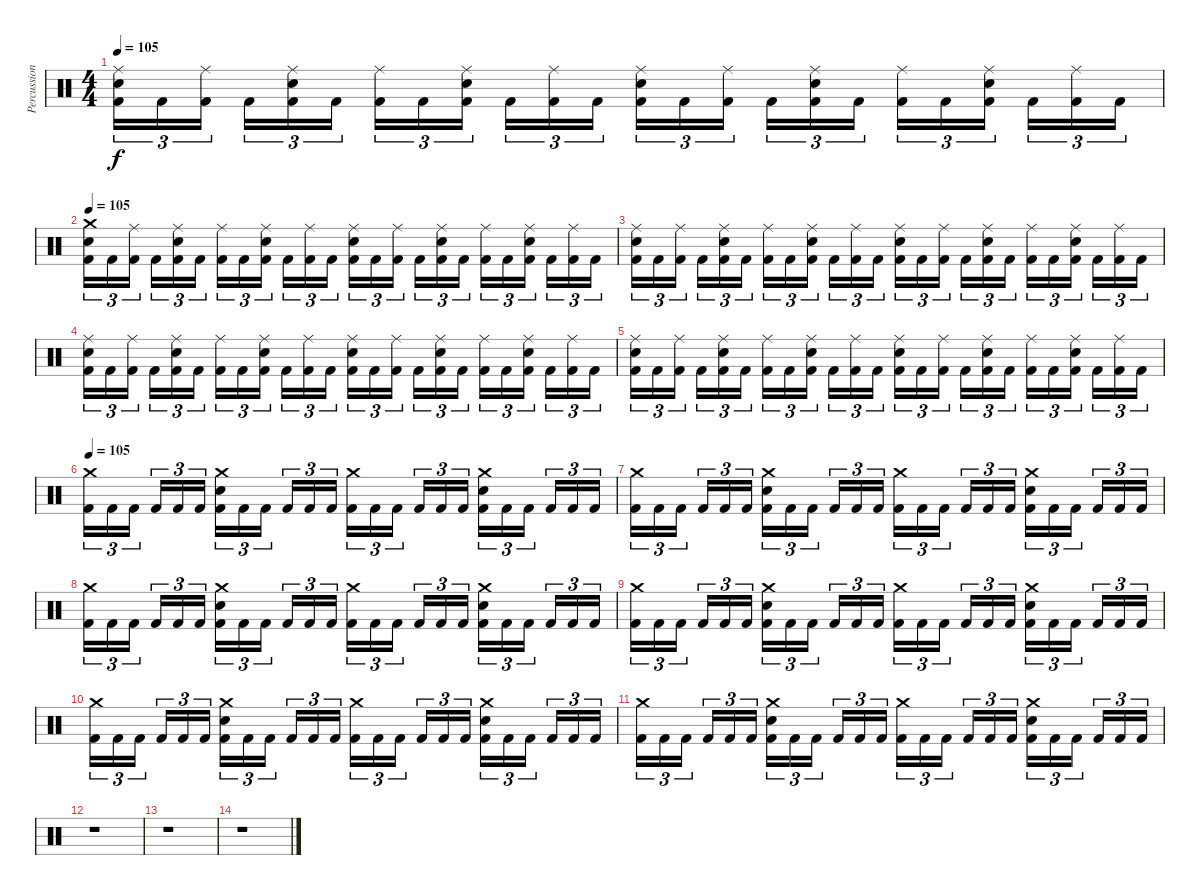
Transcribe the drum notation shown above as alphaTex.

\track ("Percussion" "Percussion") {instrument percussion}
\staff {score}
\articulation defaults
\ts (4 4)
\tempo 105
\clef neutral
\ks c
("Kick (hit) 2" "Electric Snare (hit)" "Ride (middle)").16{tu (3 2) dy f} "Kick (hit) 2".16{tu (3 2)} ("Kick (hit) 2" "Ride (middle)").16{tu (3 2)} "Kick (hit) 2".16{tu (3 2)} ("Kick (hit) 2" "Electric Snare (hit)" "Ride (middle)").16{tu (3 2)} "Kick (hit) 2".16{tu (3 2)} ("Kick (hit) 2" "Ride (middle)").16{tu (3 2)} "Kick (hit) 2".16{tu (3 2)} ("Kick (hit) 2" "Electric Snare (hit)" "Ride (middle)").16{tu (3 2)} "Kick (hit) 2".16{tu (3 2)} ("Kick (hit) 2" "Ride (middle)").16{tu (3 2)} "Kick (hit) 2".16{tu (3 2)} ("Kick (hit) 2" "Electric Snare (hit)" "Ride (middle)").16{tu (3 2)} "Kick (hit) 2".16{tu (3 2)} ("Kick (hit) 2" "Ride (middle)").16{tu (3 2)} "Kick (hit) 2".16{tu (3 2)} ("Kick (hit) 2" "Electric Snare (hit)" "Ride (middle)").16{tu (3 2)} "Kick (hit) 2".16{tu (3 2)} ("Kick (hit) 2" "Ride (middle)").16{tu (3 2)} "Kick (hit) 2".16{tu (3 2)} ("Kick (hit) 2" "Electric Snare (hit)" "Ride (middle)").16{tu (3 2)} "Kick (hit) 2".16{tu (3 2)} ("Kick (hit) 2" "Ride (middle)").16{tu (3 2)} "Kick (hit) 2".16{tu (3 2)} |
\tempo 105
("Kick (hit) 2" "Electric Snare (hit)" "Crash medium (hit)").16{tu (3 2) volume 9} "Kick (hit) 2".16{tu (3 2)} ("Kick (hit) 2" "Ride (middle)").16{tu (3 2)} "Kick (hit) 2".16{tu (3 2)} ("Kick (hit) 2" "Electric Snare (hit)" "Ride (middle)").16{tu (3 2)} "Kick (hit) 2".16{tu (3 2)} ("Kick (hit) 2" "Ride (middle)").16{tu (3 2)} "Kick (hit) 2".16{tu (3 2)} ("Kick (hit) 2" "Electric Snare (hit)" "Ride (middle)").16{tu (3 2)} "Kick (hit) 2".16{tu (3 2)} ("Kick (hit) 2" "Ride (middle)").16{tu (3 2)} "Kick (hit) 2".16{tu (3 2)} ("Kick (hit) 2" "Electric Snare (hit)" "Ride (middle)").16{tu (3 2)} "Kick (hit) 2".16{tu (3 2)} ("Kick (hit) 2" "Ride (middle)").16{tu (3 2)} "Kick (hit) 2".16{tu (3 2)} ("Kick (hit) 2" "Electric Snare (hit)" "Ride (middle)").16{tu (3 2)} "Kick (hit) 2".16{tu (3 2)} ("Kick (hit) 2" "Ride (middle)").16{tu (3 2)} "Kick (hit) 2".16{tu (3 2)} ("Kick (hit) 2" "Electric Snare (hit)" "Ride (middle)").16{tu (3 2)} "Kick (hit) 2".16{tu (3 2)} ("Kick (hit) 2" "Ride (middle)").16{tu (3 2)} "Kick (hit) 2".16{tu (3 2)} |
("Kick (hit) 2" "Electric Snare (hit)" "Ride (middle)").16{tu (3 2)} "Kick (hit) 2".16{tu (3 2)} ("Kick (hit) 2" "Ride (middle)").16{tu (3 2)} "Kick (hit) 2".16{tu (3 2)} ("Kick (hit) 2" "Electric Snare (hit)" "Ride (middle)").16{tu (3 2)} "Kick (hit) 2".16{tu (3 2)} ("Kick (hit) 2" "Ride (middle)").16{tu (3 2)} "Kick (hit) 2".16{tu (3 2)} ("Kick (hit) 2" "Electric Snare (hit)" "Ride (middle)").16{tu (3 2)} "Kick (hit) 2".16{tu (3 2)} ("Kick (hit) 2" "Ride (middle)").16{tu (3 2)} "Kick (hit) 2".16{tu (3 2)} ("Kick (hit) 2" "Electric Snare (hit)" "Ride (middle)").16{tu (3 2)} "Kick (hit) 2".16{tu (3 2)} ("Kick (hit) 2" "Ride (middle)").16{tu (3 2)} "Kick (hit) 2".16{tu (3 2)} ("Kick (hit) 2" "Electric Snare (hit)" "Ride (middle)").16{tu (3 2)} "Kick (hit) 2".16{tu (3 2)} ("Kick (hit) 2" "Ride (middle)").16{tu (3 2)} "Kick (hit) 2".16{tu (3 2)} ("Kick (hit) 2" "Electric Snare (hit)" "Ride (middle)").16{tu (3 2)} "Kick (hit) 2".16{tu (3 2)} ("Kick (hit) 2" "Ride (middle)").16{tu (3 2)} "Kick (hit) 2".16{tu (3 2)} |
("Kick (hit) 2" "Electric Snare (hit)" "Ride (middle)").16{tu (3 2) volume 7} "Kick (hit) 2".16{tu (3 2)} ("Kick (hit) 2" "Ride (middle)").16{tu (3 2)} "Kick (hit) 2".16{tu (3 2)} ("Kick (hit) 2" "Electric Snare (hit)" "Ride (middle)").16{tu (3 2)} "Kick (hit) 2".16{tu (3 2)} ("Kick (hit) 2" "Ride (middle)").16{tu (3 2)} "Kick (hit) 2".16{tu (3 2)} ("Kick (hit) 2" "Electric Snare (hit)" "Ride (middle)").16{tu (3 2)} "Kick (hit) 2".16{tu (3 2)} ("Kick (hit) 2" "Ride (middle)").16{tu (3 2)} "Kick (hit) 2".16{tu (3 2)} ("Kick (hit) 2" "Electric Snare (hit)" "Ride (middle)").16{tu (3 2)} "Kick (hit) 2".16{tu (3 2)} ("Kick (hit) 2" "Ride (middle)").16{tu (3 2)} "Kick (hit) 2".16{tu (3 2)} ("Kick (hit) 2" "Electric Snare (hit)" "Ride (middle)").16{tu (3 2)} "Kick (hit) 2".16{tu (3 2)} ("Kick (hit) 2" "Ride (middle)").16{tu (3 2)} "Kick (hit) 2".16{tu (3 2)} ("Kick (hit) 2" "Electric Snare (hit)" "Ride (middle)").16{tu (3 2)} "Kick (hit) 2".16{tu (3 2)} ("Kick (hit) 2" "Ride (middle)").16{tu (3 2)} "Kick (hit) 2".16{tu (3 2)} |
("Kick (hit) 2" "Electric Snare (hit)" "Ride (middle)").16{tu (3 2)} "Kick (hit) 2".16{tu (3 2)} ("Kick (hit) 2" "Ride (middle)").16{tu (3 2)} "Kick (hit) 2".16{tu (3 2)} ("Kick (hit) 2" "Electric Snare (hit)" "Ride (middle)").16{tu (3 2)} "Kick (hit) 2".16{tu (3 2)} ("Kick (hit) 2" "Ride (middle)").16{tu (3 2)} "Kick (hit) 2".16{tu (3 2)} ("Kick (hit) 2" "Electric Snare (hit)" "Ride (middle)").16{tu (3 2)} "Kick (hit) 2".16{tu (3 2)} ("Kick (hit) 2" "Ride (middle)").16{tu (3 2)} "Kick (hit) 2".16{tu (3 2)} ("Kick (hit) 2" "Electric Snare (hit)" "Ride (middle)").16{tu (3 2)} "Kick (hit) 2".16{tu (3 2)} ("Kick (hit) 2" "Ride (middle)").16{tu (3 2)} "Kick (hit) 2".16{tu (3 2)} ("Kick (hit) 2" "Electric Snare (hit)" "Ride (middle)").16{tu (3 2)} "Kick (hit) 2".16{tu (3 2)} ("Kick (hit) 2" "Ride (middle)").16{tu (3 2)} "Kick (hit) 2".16{tu (3 2)} ("Kick (hit) 2" "Electric Snare (hit)" "Ride (middle)").16{tu (3 2)} "Kick (hit) 2".16{tu (3 2)} ("Kick (hit) 2" "Ride (middle)").16{tu (3 2)} "Kick (hit) 2".16{tu (3 2)} |
\tempo 105
("Kick (hit) 2" "Crash medium (hit)").16{tu (3 2) volume 5} "Kick (hit) 2".16{tu (3 2)} "Kick (hit) 2".16{tu (3 2)} "Kick (hit) 2".16{tu (3 2)} "Kick (hit) 2".16{tu (3 2)} "Kick (hit) 2".16{tu (3 2)} ("Kick (hit) 2" "Electric Snare (hit)" "Crash medium (hit)").16{tu (3 2)} "Kick (hit) 2".16{tu (3 2)} "Kick (hit) 2".16{tu (3 2)} "Kick (hit) 2".16{tu (3 2)} "Kick (hit) 2".16{tu (3 2)} "Kick (hit) 2".16{tu (3 2)} ("Kick (hit) 2" "Crash medium (hit)").16{tu (3 2)} "Kick (hit) 2".16{tu (3 2)} "Kick (hit) 2".16{tu (3 2)} "Kick (hit) 2".16{tu (3 2)} "Kick (hit) 2".16{tu (3 2)} "Kick (hit) 2".16{tu (3 2)} ("Kick (hit) 2" "Electric Snare (hit)" "Crash medium (hit)").16{tu (3 2)} "Kick (hit) 2".16{tu (3 2)} "Kick (hit) 2".16{tu (3 2)} "Kick (hit) 2".16{tu (3 2)} "Kick (hit) 2".16{tu (3 2)} "Kick (hit) 2".16{tu (3 2)} |
("Kick (hit) 2" "Crash medium (hit)").16{tu (3 2)} "Kick (hit) 2".16{tu (3 2)} "Kick (hit) 2".16{tu (3 2)} "Kick (hit) 2".16{tu (3 2)} "Kick (hit) 2".16{tu (3 2)} "Kick (hit) 2".16{tu (3 2)} ("Kick (hit) 2" "Electric Snare (hit)" "Crash medium (hit)").16{tu (3 2)} "Kick (hit) 2".16{tu (3 2)} "Kick (hit) 2".16{tu (3 2)} "Kick (hit) 2".16{tu (3 2)} "Kick (hit) 2".16{tu (3 2)} "Kick (hit) 2".16{tu (3 2)} ("Kick (hit) 2" "Crash medium (hit)").16{tu (3 2)} "Kick (hit) 2".16{tu (3 2)} "Kick (hit) 2".16{tu (3 2)} "Kick (hit) 2".16{tu (3 2)} "Kick (hit) 2".16{tu (3 2)} "Kick (hit) 2".16{tu (3 2)} ("Kick (hit) 2" "Electric Snare (hit)" "Crash medium (hit)").16{tu (3 2)} "Kick (hit) 2".16{tu (3 2)} "Kick (hit) 2".16{tu (3 2)} "Kick (hit) 2".16{tu (3 2)} "Kick (hit) 2".16{tu (3 2)} "Kick (hit) 2".16{tu (3 2)} |
("Kick (hit) 2" "Crash medium (hit)").16{tu (3 2) volume 3} "Kick (hit) 2".16{tu (3 2)} "Kick (hit) 2".16{tu (3 2)} "Kick (hit) 2".16{tu (3 2)} "Kick (hit) 2".16{tu (3 2)} "Kick (hit) 2".16{tu (3 2)} ("Kick (hit) 2" "Electric Snare (hit)" "Crash medium (hit)").16{tu (3 2)} "Kick (hit) 2".16{tu (3 2)} "Kick (hit) 2".16{tu (3 2)} "Kick (hit) 2".16{tu (3 2)} "Kick (hit) 2".16{tu (3 2)} "Kick (hit) 2".16{tu (3 2)} ("Kick (hit) 2" "Crash medium (hit)").16{tu (3 2)} "Kick (hit) 2".16{tu (3 2)} "Kick (hit) 2".16{tu (3 2)} "Kick (hit) 2".16{tu (3 2)} "Kick (hit) 2".16{tu (3 2)} "Kick (hit) 2".16{tu (3 2)} ("Kick (hit) 2" "Electric Snare (hit)" "Crash medium (hit)").16{tu (3 2)} "Kick (hit) 2".16{tu (3 2)} "Kick (hit) 2".16{tu (3 2)} "Kick (hit) 2".16{tu (3 2)} "Kick (hit) 2".16{tu (3 2)} "Kick (hit) 2".16{tu (3 2)} |
("Kick (hit) 2" "Crash medium (hit)").16{tu (3 2)} "Kick (hit) 2".16{tu (3 2)} "Kick (hit) 2".16{tu (3 2)} "Kick (hit) 2".16{tu (3 2)} "Kick (hit) 2".16{tu (3 2)} "Kick (hit) 2".16{tu (3 2)} ("Kick (hit) 2" "Electric Snare (hit)" "Crash medium (hit)").16{tu (3 2)} "Kick (hit) 2".16{tu (3 2)} "Kick (hit) 2".16{tu (3 2)} "Kick (hit) 2".16{tu (3 2)} "Kick (hit) 2".16{tu (3 2)} "Kick (hit) 2".16{tu (3 2)} ("Kick (hit) 2" "Crash medium (hit)").16{tu (3 2)} "Kick (hit) 2".16{tu (3 2)} "Kick (hit) 2".16{tu (3 2)} "Kick (hit) 2".16{tu (3 2)} "Kick (hit) 2".16{tu (3 2)} "Kick (hit) 2".16{tu (3 2)} ("Kick (hit) 2" "Electric Snare (hit)" "Crash medium (hit)").16{tu (3 2)} "Kick (hit) 2".16{tu (3 2)} "Kick (hit) 2".16{tu (3 2)} "Kick (hit) 2".16{tu (3 2)} "Kick (hit) 2".16{tu (3 2)} "Kick (hit) 2".16{tu (3 2)} |
("Kick (hit) 2" "Crash medium (hit)").16{tu (3 2) volume 0} "Kick (hit) 2".16{tu (3 2)} "Kick (hit) 2".16{tu (3 2)} "Kick (hit) 2".16{tu (3 2)} "Kick (hit) 2".16{tu (3 2)} "Kick (hit) 2".16{tu (3 2)} ("Kick (hit) 2" "Electric Snare (hit)" "Crash medium (hit)").16{tu (3 2)} "Kick (hit) 2".16{tu (3 2)} "Kick (hit) 2".16{tu (3 2)} "Kick (hit) 2".16{tu (3 2)} "Kick (hit) 2".16{tu (3 2)} "Kick (hit) 2".16{tu (3 2)} ("Kick (hit) 2" "Crash medium (hit)").16{tu (3 2)} "Kick (hit) 2".16{tu (3 2)} "Kick (hit) 2".16{tu (3 2)} "Kick (hit) 2".16{tu (3 2)} "Kick (hit) 2".16{tu (3 2)} "Kick (hit) 2".16{tu (3 2)} ("Kick (hit) 2" "Electric Snare (hit)" "Crash medium (hit)").16{tu (3 2)} "Kick (hit) 2".16{tu (3 2)} "Kick (hit) 2".16{tu (3 2)} "Kick (hit) 2".16{tu (3 2)} "Kick (hit) 2".16{tu (3 2)} "Kick (hit) 2".16{tu (3 2)} |
("Kick (hit) 2" "Crash medium (hit)").16{tu (3 2)} "Kick (hit) 2".16{tu (3 2)} "Kick (hit) 2".16{tu (3 2)} "Kick (hit) 2".16{tu (3 2)} "Kick (hit) 2".16{tu (3 2)} "Kick (hit) 2".16{tu (3 2)} ("Kick (hit) 2" "Electric Snare (hit)" "Crash medium (hit)").16{tu (3 2)} "Kick (hit) 2".16{tu (3 2)} "Kick (hit) 2".16{tu (3 2)} "Kick (hit) 2".16{tu (3 2)} "Kick (hit) 2".16{tu (3 2)} "Kick (hit) 2".16{tu (3 2)} ("Kick (hit) 2" "Crash medium (hit)").16{tu (3 2)} "Kick (hit) 2".16{tu (3 2)} "Kick (hit) 2".16{tu (3 2)} "Kick (hit) 2".16{tu (3 2)} "Kick (hit) 2".16{tu (3 2)} "Kick (hit) 2".16{tu (3 2)} ("Kick (hit) 2" "Electric Snare (hit)" "Crash medium (hit)").16{tu (3 2)} "Kick (hit) 2".16{tu (3 2)} "Kick (hit) 2".16{tu (3 2)} "Kick (hit) 2".16{tu (3 2)} "Kick (hit) 2".16{tu (3 2)} "Kick (hit) 2".16{tu (3 2)} |
r.1 |
r.1 |
r.1
